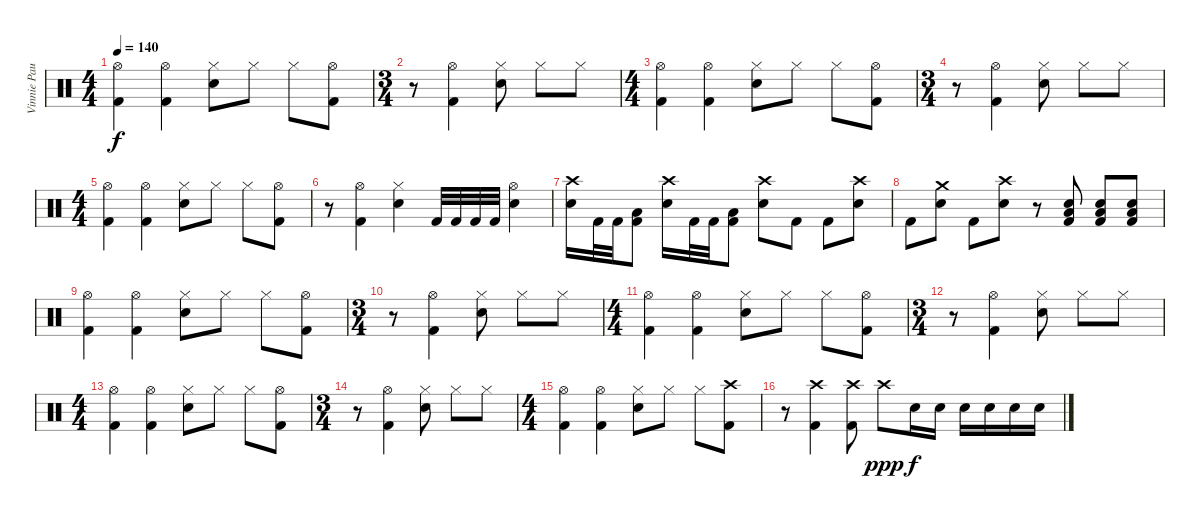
\track ("Vinnie Paul" "Vinnie Pau") {instrument percussion}
\staff {score}
\articulation defaults
\ts (4 4)
\tempo 140
\clef neutral
\ks c
("Hi-Hat (open)" "Kick (hit) 2").4{dy f} ("Hi-Hat (open)" "Kick (hit) 2").4 ("Hi-Hat (closed)" "Snare (hit) 2").8 "Hi-Hat (closed)".8 "Hi-Hat (closed)".8 ("Hi-Hat (open)" "Kick (hit) 2").8 |
\ts (3 4)
r.8 ("Hi-Hat (open)" "Kick (hit) 2").4 ("Hi-Hat (closed)" "Snare (hit) 2").8 "Hi-Hat (closed)".8 "Hi-Hat (closed)".8 |
\ts (4 4)
("Hi-Hat (open)" "Kick (hit) 2").4 ("Hi-Hat (open)" "Kick (hit) 2").4 ("Hi-Hat (closed)" "Snare (hit) 2").8 "Hi-Hat (closed)".8 "Hi-Hat (closed)".8 ("Hi-Hat (open)" "Kick (hit) 2").8 |
\ts (3 4)
r.8 ("Hi-Hat (open)" "Kick (hit) 2").4 ("Hi-Hat (closed)" "Snare (hit) 2").8 "Hi-Hat (closed)".8 "Hi-Hat (closed)".8 |
\ts (4 4)
("Hi-Hat (open)" "Kick (hit) 2").4 ("Hi-Hat (open)" "Kick (hit) 2").4 ("Hi-Hat (closed)" "Snare (hit) 2").8 "Hi-Hat (closed)".8 "Hi-Hat (closed)".8 ("Hi-Hat (open)" "Kick (hit) 2").8 |
r.8 ("Hi-Hat (open)" "Kick (hit) 2").4 ("Hi-Hat (closed)" "Snare (hit) 2").4 "Kick (hit) 2".32 "Kick (hit) 2".32 "Kick (hit) 2".32 "Kick (hit) 2".32 ("Hi-Hat (open)" "Snare (hit) 2").4 |
("Crash high (hit)" "Snare (hit) 2").16 "Kick (hit) 2".32 "Kick (hit) 2".32 ("Low Tom (hit)" "Kick (hit) 2").8 ("Crash high (hit)" "Snare (hit) 2").16 "Kick (hit) 2".32 "Kick (hit) 2".32 ("Low Tom (hit)" "Kick (hit) 2").8 ("Crash high (hit)" "Snare (hit) 2").8 "Kick (hit) 2".8 "Kick (hit) 2".8 ("Crash high (hit)" "Snare (hit) 2").8 |
"Kick (hit) 2".8 ("Crash medium (hit)" "Snare (hit) 2").8 "Kick (hit) 2".8 ("Crash high (hit)" "Snare (hit) 2").8 r.8 ("Low Floor Tom (hit)" "Snare (hit) 2" "Kick (hit) 2").8 ("Low Floor Tom (hit)" "Snare (hit) 2" "Kick (hit) 2").8 ("Low Floor Tom (hit)" "Snare (hit) 2" "Kick (hit) 2").8 |
("Hi-Hat (open)" "Kick (hit) 2").4 ("Hi-Hat (open)" "Kick (hit) 2").4 ("Hi-Hat (closed)" "Snare (hit) 2").8 "Hi-Hat (closed)".8 "Hi-Hat (closed)".8 ("Hi-Hat (open)" "Kick (hit) 2").8 |
\ts (3 4)
r.8 ("Hi-Hat (open)" "Kick (hit) 2").4 ("Hi-Hat (closed)" "Snare (hit) 2").8 "Hi-Hat (closed)".8 "Hi-Hat (closed)".8 |
\ts (4 4)
("Hi-Hat (open)" "Kick (hit) 2").4 ("Hi-Hat (open)" "Kick (hit) 2").4 ("Hi-Hat (closed)" "Snare (hit) 2").8 "Hi-Hat (closed)".8 "Hi-Hat (closed)".8 ("Hi-Hat (open)" "Kick (hit) 2").8 |
\ts (3 4)
r.8 ("Hi-Hat (open)" "Kick (hit) 2").4 ("Hi-Hat (closed)" "Snare (hit) 2").8 "Hi-Hat (closed)".8 "Hi-Hat (closed)".8 |
\ts (4 4)
("Hi-Hat (open)" "Kick (hit) 2").4 ("Hi-Hat (open)" "Kick (hit) 2").4 ("Hi-Hat (closed)" "Snare (hit) 2").8 "Hi-Hat (closed)".8 "Hi-Hat (closed)".8 ("Hi-Hat (open)" "Kick (hit) 2").8 |
\ts (3 4)
r.8 ("Hi-Hat (open)" "Kick (hit) 2").4 ("Hi-Hat (closed)" "Snare (hit) 2").8 "Hi-Hat (closed)".8 "Hi-Hat (closed)".8 |
\ts (4 4)
("Hi-Hat (open)" "Kick (hit) 2").4 ("Hi-Hat (open)" "Kick (hit) 2").4 ("Hi-Hat (closed)" "Snare (hit) 2").8 "Hi-Hat (closed)".8 "Hi-Hat (closed)".8 ("Crash high (hit)" "Kick (hit) 2").8 |
r.8 ("Crash high (hit)" "Kick (hit) 2").4 ("Crash high (hit)" "Kick (hit) 2").8 "Crash high (hit)".8{dy ppp} "Snare (hit) 2".16{dy f} "Snare (hit) 2".16 "Snare (hit) 2".16 "Snare (hit) 2".16 "Snare (hit) 2".16 "Snare (hit) 2".16
